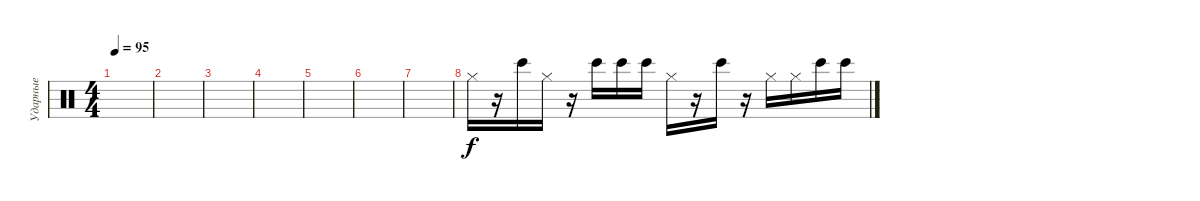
\track ("Ударные" "Ударные") {instrument percussion}
\staff {score}
\articulation defaults
\ts (4 4)
\tempo 95
\clef neutral
\ks c
|
|
|
|
|
|
|
"Hi-Hat (closed)".16 r.16 "Bongo High (hit)".16 "Hi-Hat (closed)".16 r.16 "Bongo High (hit)".16 "Bongo High (hit)".16 "Bongo High (hit)".16 "Hi-Hat (closed)".16 r.16 "Bongo High (hit)".16 r.16 "Hi-Hat (closed)".16 "Hi-Hat (closed)".16 "Bongo High (hit)".16 "Bongo High (hit)".16
